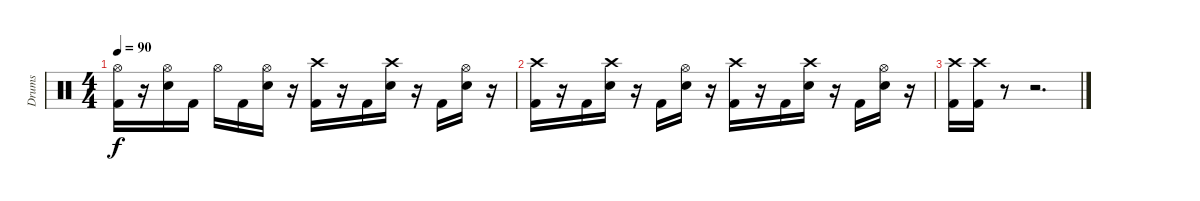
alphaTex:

\track ("Drums" "Drums") {instrument percussion}
\staff {score}
\articulation defaults
\ts (4 4)
\tempo 90
\clef neutral
\ks c
("Hi-Hat (open)" "Kick (hit) 2").16{dy f} r.16 ("Hi-Hat (open)" "Snare (hit) 2").16 "Kick (hit) 2".16 "Hi-Hat (open)".16 "Kick (hit) 2".16 ("Hi-Hat (open)" "Snare (hit) 2").16 r.16 ("Crash high (hit)" "Kick (hit) 2").16 r.16 "Kick (hit) 2".16 ("Crash high (hit)" "Snare (hit) 2").16 r.16 "Kick (hit) 2".16 ("Hi-Hat (open)" "Snare (hit) 2").16 r.16 |
("Crash high (hit)" "Kick (hit) 2").16 r.16 "Kick (hit) 2".16 ("Crash high (hit)" "Snare (hit) 2").16 r.16 "Kick (hit) 2".16 ("Hi-Hat (open)" "Snare (hit) 2").16 r.16 ("Crash high (hit)" "Kick (hit) 2").16 r.16 "Kick (hit) 2".16 ("Crash high (hit)" "Snare (hit) 2").16 r.16 "Kick (hit) 2".16 ("Hi-Hat (open)" "Snare (hit) 2").16 r.16 |
("Crash high (hit)" "Kick (hit) 2").16 ("Crash high (hit)" "Kick (hit) 2").16 r.8 r.2{d}
